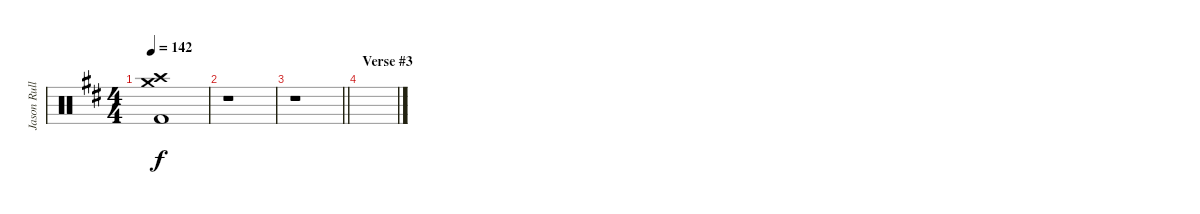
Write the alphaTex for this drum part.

\track ("Jason Rullo (drums)" "Jason Rull") {instrument percussion}
\staff {score}
\articulation defaults
\ts (4 4)
\tempo 142
\clef neutral
\ks bminor
("Crash high (hit)"{t} "Kick (hit) 2"{t} "Crash medium (hit)"{t}).1{dy f} |
r.1 |
\barLineRight lightlight
r.1 |
\section ("" "Verse #3")
